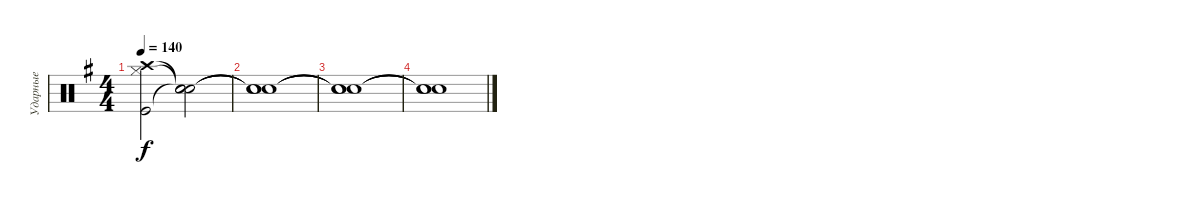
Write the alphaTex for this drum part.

\track ("Ударные" "Ударные") {instrument percussion}
\staff {score}
\articulation defaults
\ts (4 4)
\tempo 140
\clef neutral
\ks g
("Kick (hit)" "Crash high (hit)" "Hi-Hat (closed)").2{dy f} ("Snare (hit)"{t} "Snare (hit)"{t} "Snare (hit)"{t}).2 |
("Snare (hit)"{t} "Snare (hit)"{t} "Snare (hit)"{t}).1 |
("Snare (hit)"{t} "Snare (hit)"{t} "Snare (hit)"{t}).1 |
("Snare (hit)"{t} "Snare (hit)"{t} "Snare (hit)"{t}).1
